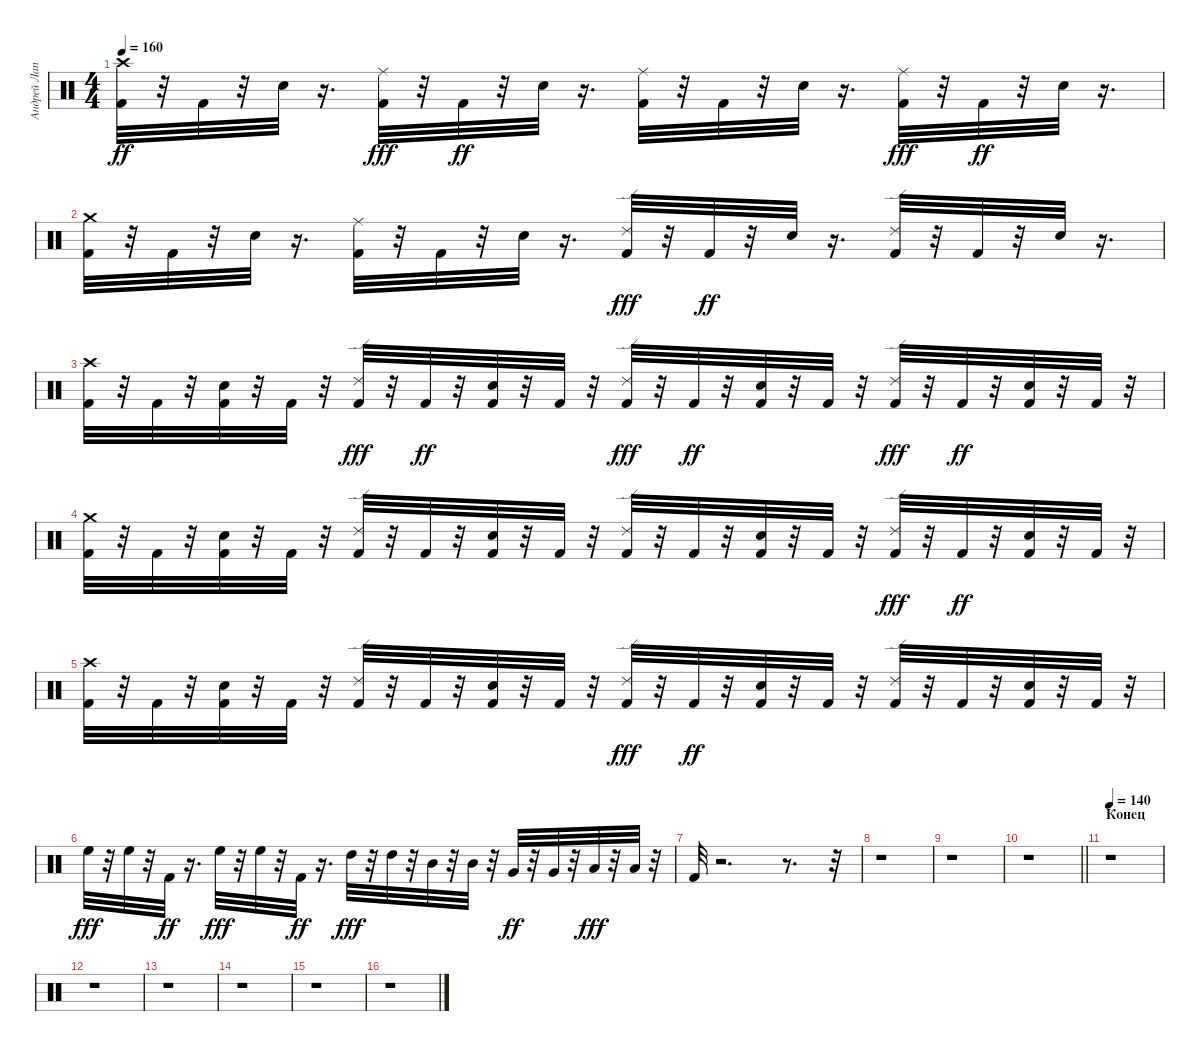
\track ("Андрей Лаптев" "Андрей Лап") {instrument percussion}
\staff {score}
\articulation defaults
\ts (4 4)
\tempo 160
\clef neutral
\ks c
("Crash high (hit)" "Kick (hit) 2").32{dy ff} r.32 "Kick (hit) 2".32 r.32 "Electric Snare (hit)".32 r.16{d} ("Kick (hit) 2" "Ride (middle)").32{dy fff} r.32 "Kick (hit) 2".32{dy ff} r.32 "Electric Snare (hit)".32 r.16{d} ("Ride (middle)" "Kick (hit) 2").32 r.32 "Kick (hit) 2".32 r.32 "Electric Snare (hit)".32 r.16{d} ("Kick (hit) 2" "Ride (middle)").32{dy fff} r.32 "Kick (hit) 2".32{dy ff} r.32 "Electric Snare (hit)".32 r.16{d} |
("Kick (hit) 2" "Crash medium (hit)").32 r.32 "Kick (hit) 2".32 r.32 "Electric Snare (hit)".32 r.16{d} ("Ride (middle)" "Kick (hit) 2").32 r.32 "Kick (hit) 2".32 r.32 "Electric Snare (hit)".32 r.16{d} ("Kick (hit) 2" "Ride (edge) 2").32{dy fff} r.32 "Kick (hit) 2".32{dy ff} r.32 "Electric Snare (hit)".32 r.16{d} ("Ride (edge) 2" "Kick (hit) 2").32 r.32 "Kick (hit) 2".32 r.32 "Electric Snare (hit)".32 r.16{d} |
("Crash high (hit)" "Kick (hit) 2").32 r.32 "Kick (hit) 2".32 r.32 ("Kick (hit) 2" "Electric Snare (hit)").32 r.32 "Kick (hit) 2".32 r.32 ("Kick (hit) 2" "Ride (edge) 2").32{dy fff} r.32 "Kick (hit) 2".32{dy ff} r.32 ("Kick (hit) 2" "Electric Snare (hit)").32 r.32 "Kick (hit) 2".32 r.32 ("Kick (hit) 2" "Ride (edge) 2").32{dy fff} r.32 "Kick (hit) 2".32{dy ff} r.32 ("Electric Snare (hit)" "Kick (hit) 2").32 r.32 "Kick (hit) 2".32 r.32 ("Kick (hit) 2" "Ride (edge) 2").32{dy fff} r.32 "Kick (hit) 2".32{dy ff} r.32 ("Electric Snare (hit)" "Kick (hit) 2").32 r.32 "Kick (hit) 2".32 r.32 |
("Kick (hit) 2" "Crash medium (hit)").32 r.32 "Kick (hit) 2".32 r.32 ("Kick (hit) 2" "Electric Snare (hit)").32 r.32 "Kick (hit) 2".32 r.32 ("Ride (edge) 2" "Kick (hit) 2").32 r.32 "Kick (hit) 2".32 r.32 ("Electric Snare (hit)" "Kick (hit) 2").32 r.32 "Kick (hit) 2".32 r.32 ("Ride (edge) 2" "Kick (hit) 2").32 r.32 "Kick (hit) 2".32 r.32 ("Kick (hit) 2" "Electric Snare (hit)").32 r.32 "Kick (hit) 2".32 r.32 ("Kick (hit) 2" "Ride (edge) 2").32{dy fff} r.32 "Kick (hit) 2".32{dy ff} r.32 ("Kick (hit) 2" "Electric Snare (hit)").32 r.32 "Kick (hit) 2".32 r.32 |
("Kick (hit) 2" "Crash high (hit)").32 r.32 "Kick (hit) 2".32 r.32 ("Electric Snare (hit)" "Kick (hit) 2").32 r.32 "Kick (hit) 2".32 r.32 ("Ride (edge) 2" "Kick (hit) 2").32 r.32 "Kick (hit) 2".32 r.32 ("Kick (hit) 2" "Electric Snare (hit)").32 r.32 "Kick (hit) 2".32 r.32 ("Kick (hit) 2" "Ride (edge) 2").32{dy fff} r.32 "Kick (hit) 2".32{dy ff} r.32 ("Electric Snare (hit)" "Kick (hit) 2").32 r.32 "Kick (hit) 2".32 r.32 ("Ride (edge) 2" "Kick (hit) 2").32 r.32 "Kick (hit) 2".32 r.32 ("Kick (hit) 2" "Electric Snare (hit)").32 r.32 "Kick (hit) 2".32 r.32 |
"High Floor Tom (hit)".32{dy fff} r.32 "High Floor Tom (hit)".32 r.32 "Kick (hit) 2".32{dy ff} r.16{d} "High Floor Tom (hit)".32{dy fff} r.32 "High Floor Tom (hit)".32 r.32 "Kick (hit) 2".32{dy ff} r.16{d} "High Tom (hit)".32{dy fff} r.32 "High Tom (hit)".32 r.32 "Mid Tom (hit)".32 r.32 "Mid Tom (hit)".32 r.32 "Very Low Tom (hit)".32{dy ff} r.32 "Very Low Tom (hit)".32 r.32 "Low Tom (hit)".32{dy fff} r.32 "Low Tom (hit)".32 r.32 |
"Kick (hit) 2".32 r.2{d} r.8{d} r.32 |
r.1 |
r.1 |
\barLineRight lightlight
r.1 |
\section ("" "Конец")
\tempo 140
r.1 |
r.1 |
r.1 |
r.1 |
r.1 |
r.1
